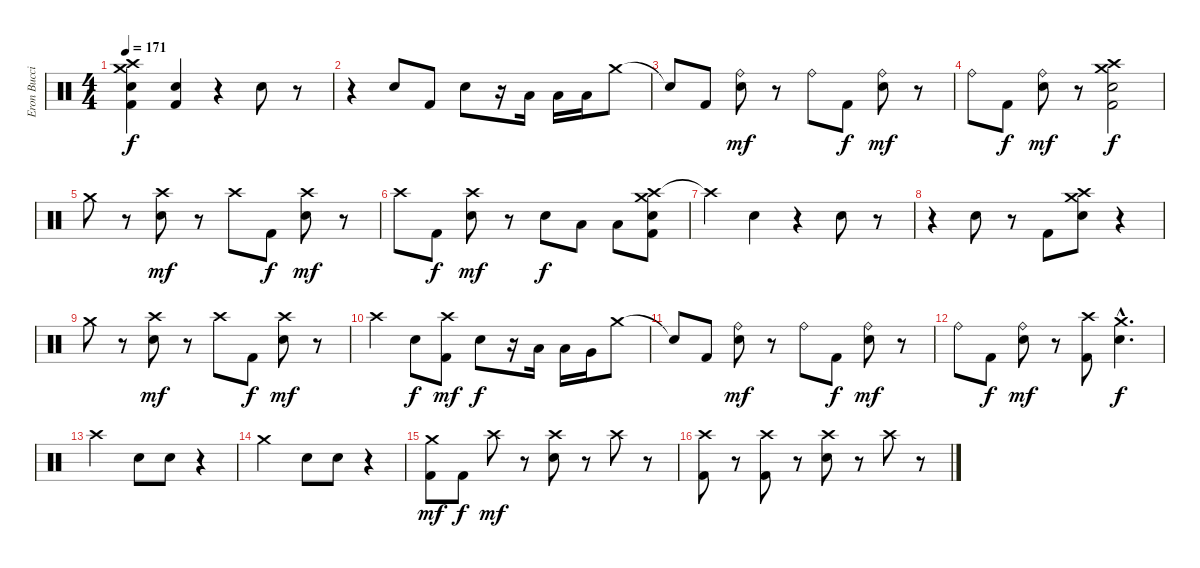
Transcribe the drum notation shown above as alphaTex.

\track ("Eron Bucciarelli (Drums)" "Eron Bucci") {instrument percussion}
\staff {score}
\articulation defaults
\ts (4 4)
\tempo 171
\clef neutral
\ks c
("Crash medium (hit)" "Crash high (hit)" "Snare (hit) 2" "Kick (hit) 2").4{dy f} ("Snare (hit) 2" "Kick (hit) 2").4 r.4 "Snare (hit) 2".8 r.8 |
r.4 "Snare (hit) 2".8 "Kick (hit) 2".8 "Snare (hit) 2".8 r.16 "Low Tom (hit)".16 "Low Tom (hit)".16 "Low Floor Tom (hit)".16 "Crash medium (hit)".8 |
"Snare (hit)"{t}.8 "Kick (hit) 2".8 ("Ride (bell)" "Snare (hit) 2").8{dy mf} r.8 "Ride (bell)".8 "Kick (hit) 2".8{dy f} ("Ride (bell)" "Snare (hit) 2").8{dy mf} r.8 |
"Ride (bell)".8 "Kick (hit) 2".8{dy f} ("Ride (bell)" "Snare (hit) 2").8{dy mf} r.8 ("Crash high (hit)" "Crash medium (hit)" "Snare (hit) 2" "Kick (hit) 2").2{dy f} |
"Crash medium (hit)".8 r.8 ("Crash high (hit)" "Snare (hit) 2").8{dy mf} r.8 "Crash high (hit)".8 "Kick (hit) 2".8{dy f} ("Crash high (hit)" "Snare (hit) 2").8{dy mf} r.8 |
"Crash high (hit)".8 "Kick (hit) 2".8{dy f} ("Crash high (hit)" "Snare (hit) 2").8{dy mf} r.8 "Snare (hit) 2".8{dy f} "Low Tom (hit)".8 "Low Floor Tom (hit)".8 ("Crash high (hit)" "Crash medium (hit)" "Snare (hit) 2" "Kick (hit) 2").8 |
"Crash high (hit)"{t}.4 "Snare (hit) 2".4 r.4 "Snare (hit) 2".8 r.8 |
r.4 "Snare (hit) 2".8 r.8 "Kick (hit) 2".8 ("Crash medium (hit)" "Crash high (hit)" "Snare (hit) 2").8 r.4 |
"Crash medium (hit)".8 r.8 ("Crash high (hit)" "Snare (hit) 2").8{dy mf} r.8 "Crash high (hit)".8 "Kick (hit) 2".8{dy f} ("Crash high (hit)" "Snare (hit) 2").8{dy mf} r.8 |
"Crash high (hit)".4 "Snare (hit) 2".8{dy f} ("Crash high (hit)" "Kick (hit) 2").8{dy mf} "Snare (hit) 2".8{dy f} r.16 "Low Tom (hit)".16 "Low Tom (hit)".16 "Very Low Tom (hit)".16 "Crash medium (hit)".8 |
"Snare (hit)"{t}.8 "Kick (hit) 2".8 ("Ride (bell)" "Snare (hit) 2").8{dy mf} r.8 "Ride (bell)".8 "Kick (hit) 2".8{dy f} ("Ride (bell)" "Snare (hit) 2").8{dy mf} r.8 |
"Ride (bell)".8 "Kick (hit) 2".8{dy f} ("Ride (bell)" "Snare (hit) 2").8{dy mf} r.8 ("Crash high (hit)" "Kick (hit) 2").8 ("Crash medium (hit)"{hac} "Snare (hit) 2"{hac}).4{d dy f} |
"Crash high (hit)".2 "Snare (hit) 2".8 "Snare (hit) 2".8 r.4 |
"Crash medium (hit)".2 "Snare (hit) 2".8 "Snare (hit) 2".8 r.4 |
("Crash medium (hit)" "Kick (hit) 2").8{dy mf} "Kick (hit) 2".8{dy f} "Crash high (hit)".8{dy mf} r.8 ("Crash high (hit)" "Snare (hit) 2").8 r.8 "Crash high (hit)".8 r.8 |
("Crash high (hit)" "Kick (hit) 2").8 r.8 ("Crash high (hit)" "Kick (hit) 2").8 r.8 ("Crash high (hit)" "Snare (hit) 2").8 r.8 "Crash high (hit)".8 r.8
